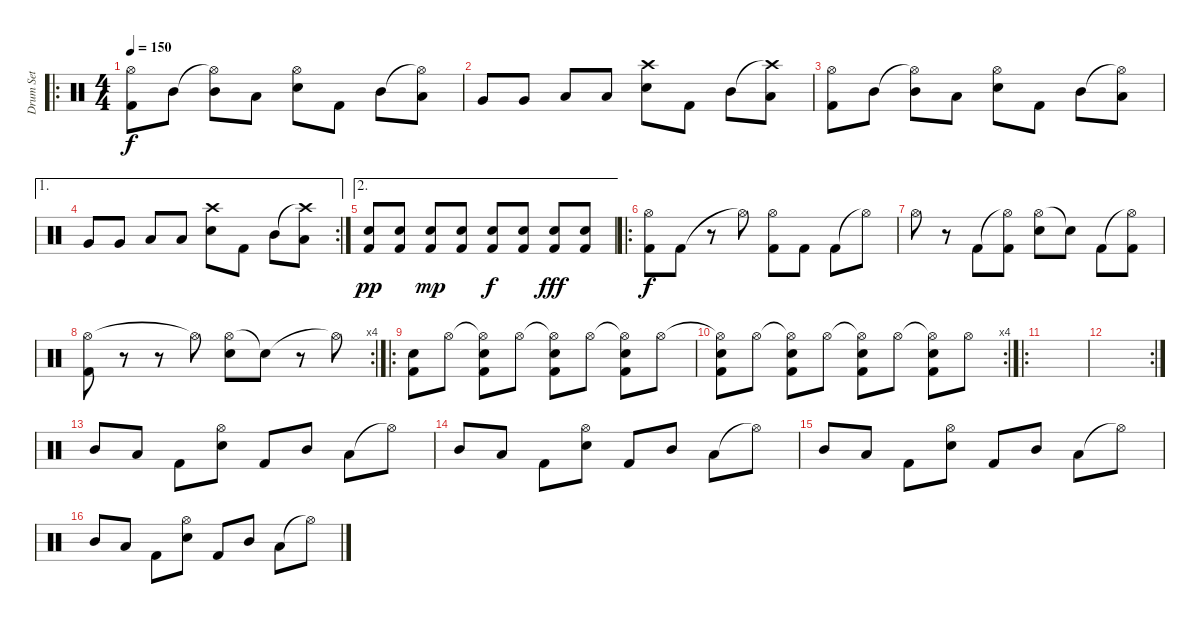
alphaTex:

\track ("Drum Set" "Drum Set") {instrument percussion}
\staff {score}
\articulation defaults
\ro
\ts (4 4)
\tempo 150
\clef neutral
\ks c
("Hi-Hat (open)" "Kick (hit) 2").8{dy f} "Mid Tom (hit)".8 ("Hi-Hat (open)"{t} "Mid Tom (hit)").8 "Low Tom (hit)".8 ("Hi-Hat (open)" "Snare (hit) 2").8 "Kick (hit) 2".8 "Mid Tom (hit)".8 ("Hi-Hat (open)"{t} "Low Tom (hit)").8 |
"Very Low Tom (hit)".8 "Very Low Tom (hit)".8 "Low Tom (hit)".8 "Low Floor Tom (hit)".8 ("Crash high (hit)" "Snare (hit) 2").8 "Kick (hit) 2".8 "Mid Tom (hit)".8 ("Crash high (hit)"{t} "Low Tom (hit)").8 |
("Hi-Hat (open)" "Kick (hit) 2").8 "Mid Tom (hit)".8 ("Hi-Hat (open)"{t} "Mid Tom (hit)").8 "Low Tom (hit)".8 ("Hi-Hat (open)" "Snare (hit) 2").8 "Kick (hit) 2".8 "Mid Tom (hit)".8 ("Hi-Hat (open)"{t} "Low Tom (hit)").8 |
\ae 1
\rc 2 "Very Low Tom (hit)".8 "Very Low Tom (hit)".8 "Low Tom (hit)".8 "Low Floor Tom (hit)".8
("Crash high (hit)" "Snare (hit) 2").8 "Kick (hit) 2".8 "Mid Tom (hit)".8 ("Crash high (hit)"{t} "Low Tom (hit)").8 |
\ae 2
("Snare (hit) 2" "Kick (hit) 2").8{dy pp} ("Snare (hit) 2" "Kick (hit) 2").8 ("Snare (hit) 2" "Kick (hit) 2").8{dy mp} ("Snare (hit) 2" "Kick (hit) 2").8 ("Snare (hit) 2" "Kick (hit) 2").8{dy f} ("Snare (hit) 2" "Kick (hit) 2").8 ("Snare (hit) 2" "Kick (hit) 2").8{dy fff} ("Snare (hit) 2" "Kick (hit) 2").8 |
\ro
("Hi-Hat (open)" "Kick (hit) 2").8{dy f} "Kick (hit) 2".8 r.8 "Hi-Hat (open)"{t}.8 ("Hi-Hat (open)" "Kick (hit) 2").8 "Kick (hit) 2".8 "Kick (hit) 2".8 "Hi-Hat (open)"{t}.8 |
"Hi-Hat (open)".8 r.8 "Kick (hit) 2".8 ("Hi-Hat (open)"{t} "Kick (hit) 2").8 ("Hi-Hat (open)" "Snare (hit) 2").8 "Electric Snare (hit)"{t}.8 "Kick (hit) 2".8 ("Hi-Hat (open)"{t} "Kick (hit) 2").8 |
\rc 4
("Hi-Hat (open)" "Kick (hit) 2").8 r.8 r.8 "Hi-Hat (open)"{t}.8 ("Hi-Hat (open)" "Snare (hit) 2").8 "Snare (hit) 2"{t}.8 r.8 "Hi-Hat (open)"{t}.8 |
\ro
("Snare (hit) 2" "Kick (hit) 2").8 "Hi-Hat (open)".8 ("Hi-Hat (open)"{t} "Snare (hit) 2" "Kick (hit) 2").8 "Hi-Hat (open)".8 ("Hi-Hat (open)"{t} "Snare (hit) 2" "Kick (hit) 2").8 "Hi-Hat (open)".8 ("Hi-Hat (open)"{t} "Snare (hit) 2" "Kick (hit) 2").8 "Hi-Hat (open)".8 |
\rc 4
("Hi-Hat (open)"{t} "Snare (hit) 2" "Kick (hit) 2").8 "Hi-Hat (open)".8 ("Hi-Hat (open)"{t} "Snare (hit) 2" "Kick (hit) 2").8 "Hi-Hat (open)".8 ("Hi-Hat (open)"{t} "Snare (hit) 2" "Kick (hit) 2").8 "Hi-Hat (open)".8 ("Hi-Hat (open)"{t} "Snare (hit) 2" "Kick (hit) 2").8 "Hi-Hat (open)".8 |
\ro
|
\rc 2
|
"Mid Tom (hit)".8 "Low Tom (hit)".8 "Kick (hit) 2".8 ("Hi-Hat (open)" "Snare (hit) 2").8 "Kick (hit) 2".8 "Mid Tom (hit)".8 "Low Tom (hit)".8 "Hi-Hat (open)"{t}.8 |
"Mid Tom (hit)".8 "Low Tom (hit)".8 "Kick (hit) 2".8 ("Hi-Hat (open)" "Snare (hit) 2").8 "Kick (hit) 2".8 "Mid Tom (hit)".8 "Low Tom (hit)".8 "Hi-Hat (open)"{t}.8 |
"Mid Tom (hit)".8 "Low Tom (hit)".8 "Kick (hit) 2".8 ("Hi-Hat (open)" "Snare (hit) 2").8 "Kick (hit) 2".8 "Mid Tom (hit)".8 "Low Tom (hit)".8 "Hi-Hat (open)"{t}.8 |
"Mid Tom (hit)".8 "Low Tom (hit)".8 "Kick (hit) 2".8 ("Hi-Hat (open)" "Snare (hit) 2").8 "Kick (hit) 2".8 "Mid Tom (hit)".8 "Low Tom (hit)".8 "Hi-Hat (open)"{t}.8
